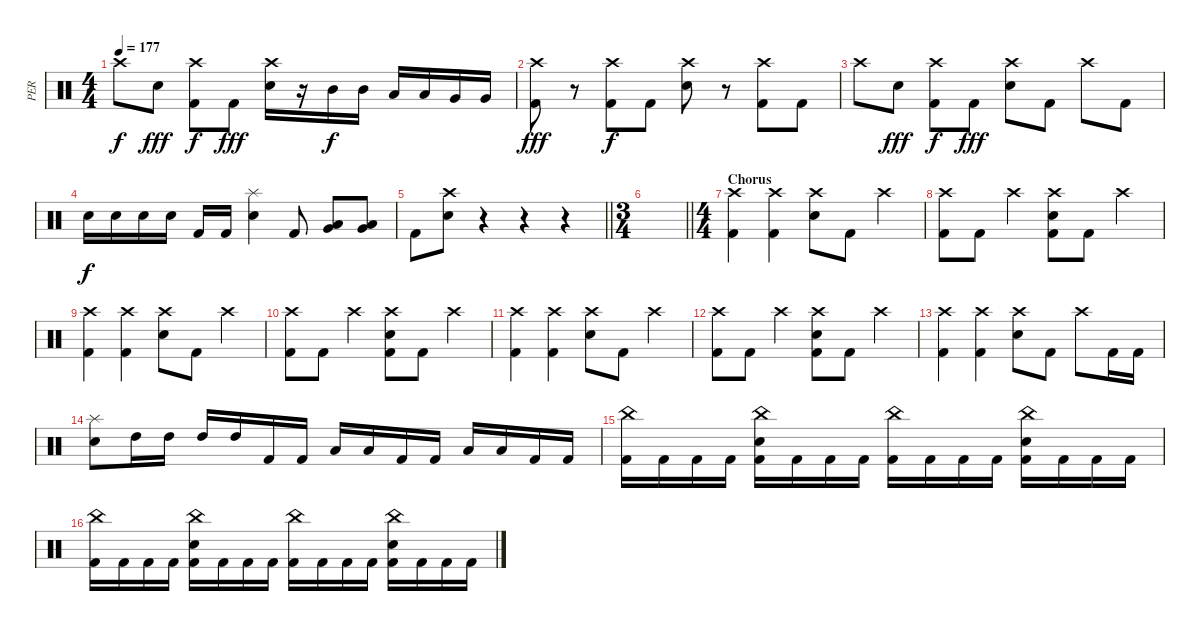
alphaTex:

\track ("PER" "PER") {instrument percussion}
\staff {score}
\articulation defaults
\ts (4 4)
\tempo 177
\clef neutral
\ks c "Crash high (hit)".8{dy f} "Electric Snare (hit)".8{dy fff}
("Crash high (hit)" "Kick (hit) 2").8{dy f} "Kick (hit) 2".8{dy fff} ("Crash high (hit)" "Electric Snare (hit)").16 r.16 "Mid Tom (hit)".16{dy f} "Mid Tom (hit)".16 "Low Tom (hit)".16 "Low Tom (hit)".16 "Very Low Tom (hit)".16 "Very Low Tom (hit)".16 |
("Crash high (hit)" "Kick (hit) 2").8{dy fff} r.8 ("Crash high (hit)" "Kick (hit) 2").8{dy f} "Kick (hit) 2".8 ("Crash high (hit)" "Electric Snare (hit)").8 r.8 ("Crash high (hit)" "Kick (hit) 2").8 "Kick (hit) 2".8 |
"Crash high (hit)".8 "Electric Snare (hit)".8{dy fff} ("Crash high (hit)" "Kick (hit) 2").8{dy f} "Kick (hit) 2".8{dy fff} ("Crash high (hit)" "Electric Snare (hit)").8 "Kick (hit) 2".8 "Crash high (hit)".8 "Kick (hit) 2".8 |
"Electric Snare (hit)".16{dy f} "Electric Snare (hit)".16 "Electric Snare (hit)".16 "Electric Snare (hit)".16 "Kick (hit) 2".16 "Kick (hit) 2".16 ("Splash (hit)" "Electric Snare (hit)").4 "Kick (hit) 2".8 ("Very Low Tom (hit)" "Low Floor Tom (hit)").8 ("Very Low Tom (hit)" "Low Floor Tom (hit)").8 |
\barLineRight lightlight "Kick (hit) 2".8
("Crash high (hit)" "Electric Snare (hit)").8 r.4 r.4 r.4 |
\ts (3 4)
\barLineRight lightlight
|
\ts (4 4)
\section ("" "Chorus")
("Crash high (hit)" "Kick (hit) 2").4 ("Crash high (hit)" "Kick (hit) 2").4 ("Crash high (hit)" "Electric Snare (hit)").8 "Kick (hit) 2".8 "Crash high (hit)".4 |
("Crash high (hit)" "Kick (hit) 2").8 "Kick (hit) 2".8 "Crash high (hit)".4 ("Crash high (hit)" "Electric Snare (hit)" "Kick (hit) 2").8 "Kick (hit) 2".8 "Crash high (hit)".4 |
("Crash high (hit)" "Kick (hit) 2").4 ("Crash high (hit)" "Kick (hit) 2").4 ("Crash high (hit)" "Electric Snare (hit)").8 "Kick (hit) 2".8 "Crash high (hit)".4 |
("Crash high (hit)" "Kick (hit) 2").8 "Kick (hit) 2".8 "Crash high (hit)".4 ("Crash high (hit)" "Electric Snare (hit)" "Kick (hit) 2").8 "Kick (hit) 2".8 "Crash high (hit)".4 |
("Crash high (hit)" "Kick (hit) 2").4 ("Crash high (hit)" "Kick (hit) 2").4 ("Crash high (hit)" "Electric Snare (hit)").8 "Kick (hit) 2".8 "Crash high (hit)".4 |
("Crash high (hit)" "Kick (hit) 2").8 "Kick (hit) 2".8 "Crash high (hit)".4 ("Crash high (hit)" "Electric Snare (hit)" "Kick (hit) 2").8 "Kick (hit) 2".8 "Crash high (hit)".4 |
("Crash high (hit)" "Kick (hit) 2").4 ("Crash high (hit)" "Kick (hit) 2").4 ("Crash high (hit)" "Electric Snare (hit)").8 "Kick (hit) 2".8 "Crash high (hit)".8 "Kick (hit) 2".16 "Kick (hit) 2".16 |
("Splash (hit)" "Electric Snare (hit)").8 "High Tom (hit)".16 "High Tom (hit)".16 "High Tom (hit)".16 "High Tom (hit)".16 "Kick (hit) 2".16 "Kick (hit) 2".16 "Low Tom (hit)".16 "Low Tom (hit)".16 "Kick (hit) 2".16 "Kick (hit) 2".16 "Low Floor Tom (hit)".16 "Low Floor Tom (hit)".16 "Kick (hit) 2".16 "Kick (hit) 2".16 |
("China (hit)" "Kick (hit) 2").16 "Kick (hit) 2".16 "Kick (hit) 2".16 "Kick (hit) 2".16 ("China (hit)" "Electric Snare (hit)" "Kick (hit) 2").16 "Kick (hit) 2".16 "Kick (hit) 2".16 "Kick (hit) 2".16 ("China (hit)" "Kick (hit) 2").16 "Kick (hit) 2".16 "Kick (hit) 2".16 "Kick (hit) 2".16 ("China (hit)" "Electric Snare (hit)" "Kick (hit) 2").16 "Kick (hit) 2".16 "Kick (hit) 2".16 "Kick (hit) 2".16 |
("China (hit)" "Kick (hit) 2").16 "Kick (hit) 2".16 "Kick (hit) 2".16 "Kick (hit) 2".16 ("China (hit)" "Electric Snare (hit)" "Kick (hit) 2").16 "Kick (hit) 2".16 "Kick (hit) 2".16 "Kick (hit) 2".16 ("China (hit)" "Kick (hit) 2").16 "Kick (hit) 2".16 "Kick (hit) 2".16 "Kick (hit) 2".16 ("China (hit)" "Electric Snare (hit)" "Kick (hit) 2").16 "Kick (hit) 2".16 "Kick (hit) 2".16 "Kick (hit) 2".16
